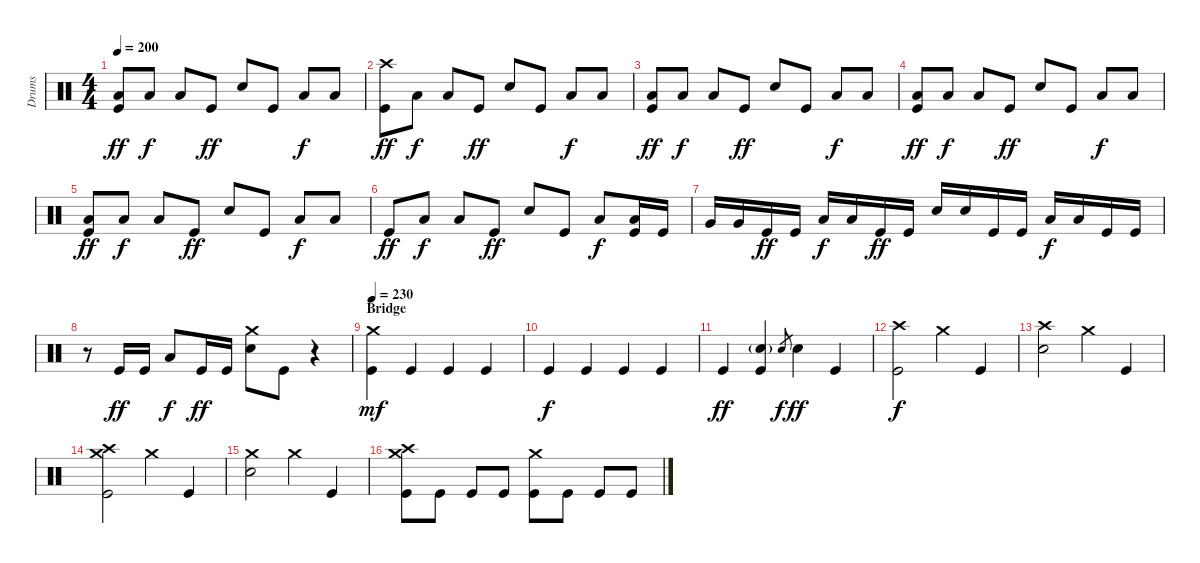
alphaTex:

\track ("Drums" "Drums") {instrument percussion}
\staff {score}
\articulation defaults
\ts (4 4)
\tempo 200
\clef neutral
\ks c
("Low Floor Tom (hit)" "Kick (hit)").8{dy ff} "Low Floor Tom (hit)".8{dy f} "Low Floor Tom (hit)".8 "Kick (hit)".8{dy ff} "Electric Snare (hit)".8 "Kick (hit)".8 "Low Floor Tom (hit)".8{dy f} "Low Floor Tom (hit)".8 |
("Crash high (hit)" "Kick (hit)").8{dy ff} "Low Floor Tom (hit)".8{dy f} "Low Floor Tom (hit)".8 "Kick (hit)".8{dy ff} "Electric Snare (hit)".8 "Kick (hit)".8 "Low Floor Tom (hit)".8{dy f} "Low Floor Tom (hit)".8 |
("Low Floor Tom (hit)" "Kick (hit)").8{dy ff} "Low Floor Tom (hit)".8{dy f} "Low Floor Tom (hit)".8 "Kick (hit)".8{dy ff} "Electric Snare (hit)".8 "Kick (hit)".8 "Low Floor Tom (hit)".8{dy f} "Low Floor Tom (hit)".8 |
("Low Floor Tom (hit)" "Kick (hit)").8{dy ff} "Low Floor Tom (hit)".8{dy f} "Low Floor Tom (hit)".8 "Kick (hit)".8{dy ff} "Electric Snare (hit)".8 "Kick (hit)".8 "Low Floor Tom (hit)".8{dy f} "Low Floor Tom (hit)".8 |
("Low Floor Tom (hit)" "Kick (hit)").8{dy ff} "Low Floor Tom (hit)".8{dy f} "Low Floor Tom (hit)".8 "Kick (hit)".8{dy ff} "Electric Snare (hit)".8 "Kick (hit)".8 "Low Floor Tom (hit)".8{dy f} "Low Floor Tom (hit)".8 |
"Kick (hit)".8{dy ff} "Low Floor Tom (hit)".8{dy f} "Low Floor Tom (hit)".8 "Kick (hit)".8{dy ff} "Electric Snare (hit)".8 "Kick (hit)".8 "Low Floor Tom (hit)".8{dy f} ("Low Floor Tom (hit)" "Kick (hit)").16 "Kick (hit)".16 |
"Very Low Tom (hit)".16 "Very Low Tom (hit)".16 "Kick (hit)".16{dy ff} "Kick (hit)".16 "Low Floor Tom (hit)".16{dy f} "Low Floor Tom (hit)".16 "Kick (hit)".16{dy ff} "Kick (hit)".16 "Electric Snare (hit)".16 "Electric Snare (hit)".16 "Kick (hit)".16 "Kick (hit)".16 "Low Floor Tom (hit)".16{dy f} "Low Floor Tom (hit)".16 "Kick (hit)".16 "Kick (hit)".16 |
r.8 "Kick (hit)".16{dy ff} "Kick (hit)".16 "Low Floor Tom (hit)".8{dy f} "Kick (hit)".16{dy ff} "Kick (hit)".16 ("Crash medium (hit)" "Electric Snare (hit)").8 "Kick (hit)".8 r.4 |
\section ("" "Bridge")
\tempo 230
("Crash medium (hit)" "Kick (hit)").4{dy mf} "Kick (hit)".4 "Kick (hit)".4 "Kick (hit)".4 |
"Kick (hit)".4{dy f} "Kick (hit)".4 "Kick (hit)".4 "Kick (hit)".4 |
"Kick (hit)".4{dy ff} ("Electric Snare (hit)"{g} "Kick (hit)").4 "Electric Snare (hit)".8{gr dy f} "Electric Snare (hit)".4{dy ff} "Kick (hit)".4 |
("Crash high (hit)" "Kick (hit)").2{dy f} "Crash medium (hit)".4 "Kick (hit)".4 |
("Crash high (hit)" "Electric Snare (hit)").2 "Crash medium (hit)".4 "Kick (hit)".4 |
("Crash high (hit)" "Crash medium (hit)" "Kick (hit)").2 "Crash medium (hit)".4 "Kick (hit)".4 |
("Crash medium (hit)" "Electric Snare (hit)").2 "Crash medium (hit)".4 "Kick (hit)".4 |
("Crash high (hit)" "Crash medium (hit)" "Kick (hit)").8 "Kick (hit)".8 "Kick (hit)".8 "Kick (hit)".8 ("Crash medium (hit)" "Kick (hit)").8 "Kick (hit)".8 "Kick (hit)".8 "Kick (hit)".8
